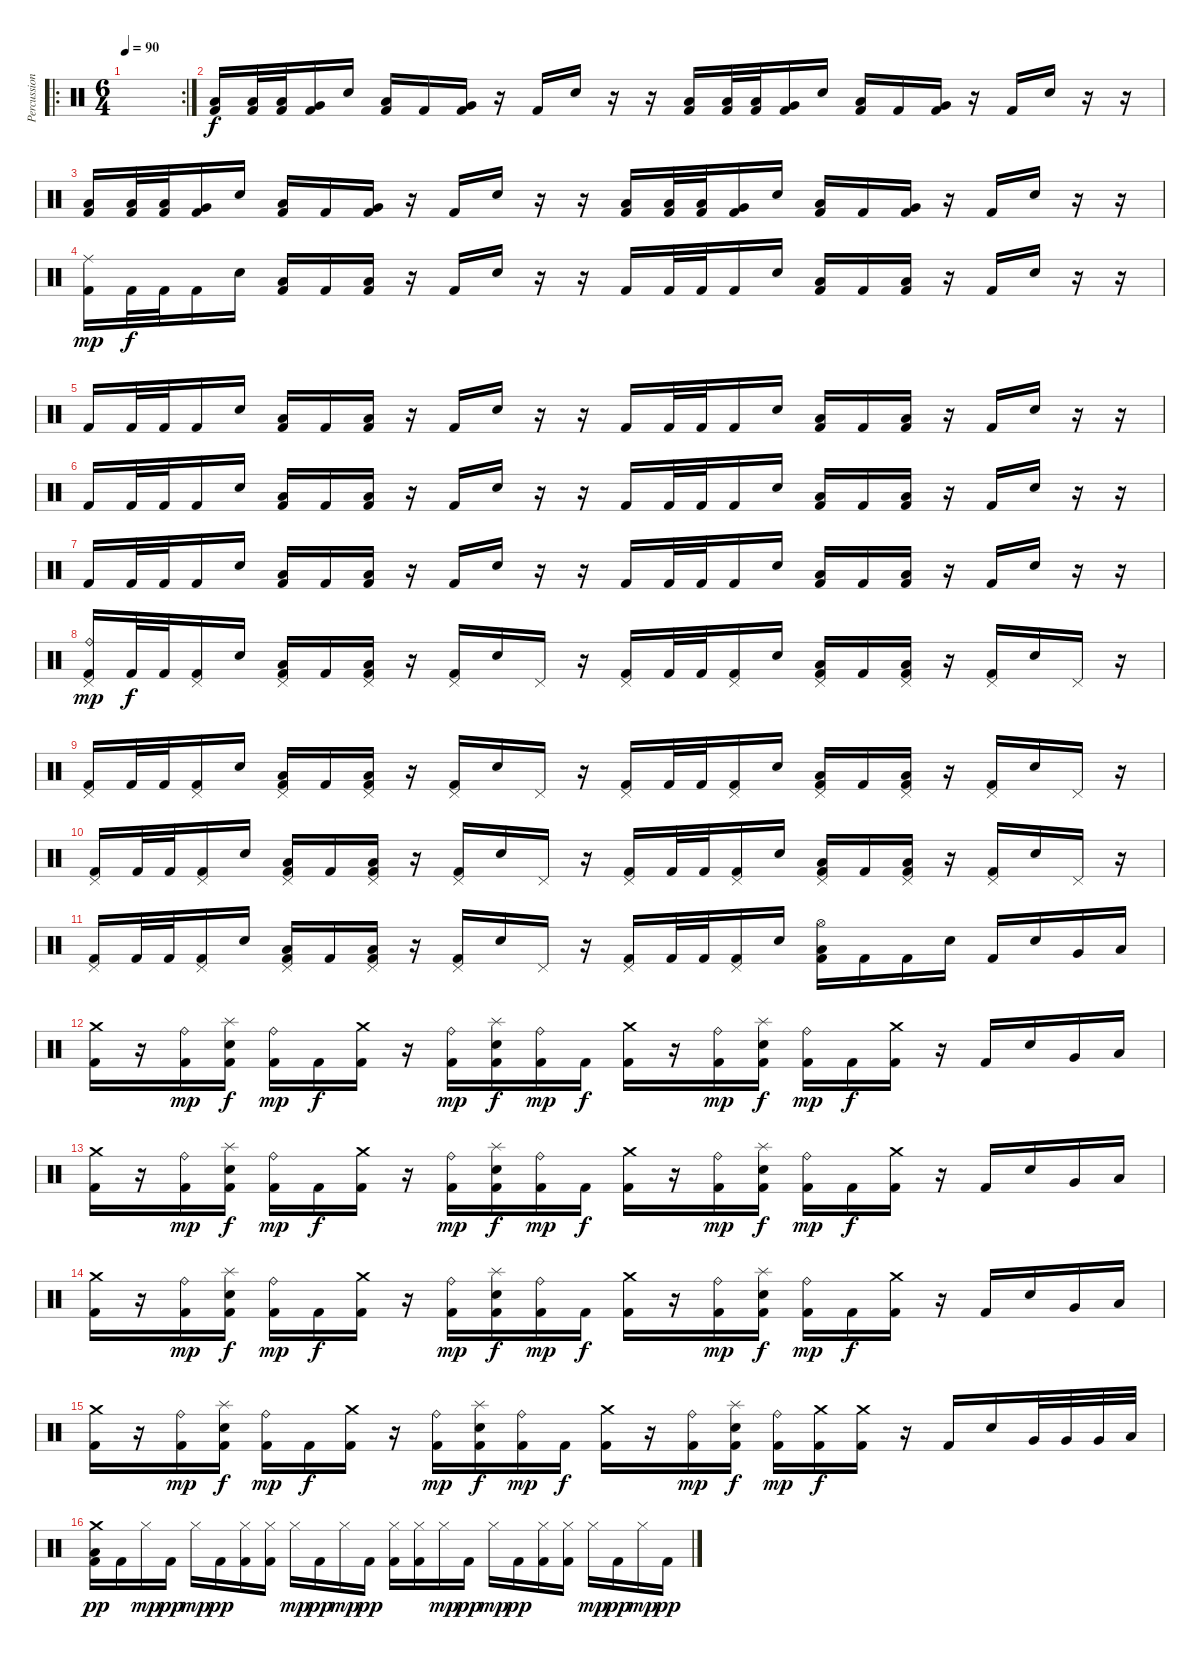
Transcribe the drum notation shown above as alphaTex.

\track ("Percussion" "Percussion") {instrument percussion}
\staff {score}
\articulation defaults
\ro
\rc 2
\ts (6 4)
\tempo 90
\clef neutral
\ks c
|
("Low Floor Tom (hit)" "Kick (hit) 2").16 ("Low Floor Tom (hit)" "Kick (hit) 2").32 ("Low Floor Tom (hit)" "Kick (hit) 2").32 ("Very Low Tom (hit)" "Kick (hit) 2").16 "Electric Snare (hit)".16 ("Low Tom (hit)" "Kick (hit) 2").16 "Kick (hit) 2".16 ("Very Low Tom (hit)" "Kick (hit) 2").16 r.16 "Kick (hit) 2".16 "Electric Snare (hit)".16 r.16 r.16 ("Low Floor Tom (hit)" "Kick (hit) 2").16 ("Low Floor Tom (hit)" "Kick (hit) 2").32 ("Low Floor Tom (hit)" "Kick (hit) 2").32 ("Very Low Tom (hit)" "Kick (hit) 2").16 "Electric Snare (hit)".16 ("Low Tom (hit)" "Kick (hit) 2").16 "Kick (hit) 2".16 ("Very Low Tom (hit)" "Kick (hit) 2").16 r.16 "Kick (hit) 2".16 "Electric Snare (hit)".16 r.16 r.16 |
("Low Floor Tom (hit)" "Kick (hit) 2").16 ("Low Floor Tom (hit)" "Kick (hit) 2").32 ("Low Floor Tom (hit)" "Kick (hit) 2").32 ("Very Low Tom (hit)" "Kick (hit) 2").16 "Electric Snare (hit)".16 ("Low Tom (hit)" "Kick (hit) 2").16 "Kick (hit) 2".16 ("Very Low Tom (hit)" "Kick (hit) 2").16 r.16 "Kick (hit) 2".16 "Electric Snare (hit)".16 r.16 r.16 ("Low Floor Tom (hit)" "Kick (hit) 2").16 ("Low Floor Tom (hit)" "Kick (hit) 2").32 ("Low Floor Tom (hit)" "Kick (hit) 2").32 ("Very Low Tom (hit)" "Kick (hit) 2").16 "Electric Snare (hit)".16 ("Low Tom (hit)" "Kick (hit) 2").16 "Kick (hit) 2".16 ("Very Low Tom (hit)" "Kick (hit) 2").16 r.16 "Kick (hit) 2".16 "Electric Snare (hit)".16 r.16 r.16 |
("Ride (middle)" "Kick (hit) 2").16{dy mp} "Kick (hit) 2".32{dy f} "Kick (hit) 2".32 "Kick (hit) 2".16 "Electric Snare (hit)".16 ("Low Floor Tom (hit)" "Kick (hit) 2").16 "Kick (hit) 2".16 ("Low Tom (hit)" "Kick (hit) 2").16 r.16 "Kick (hit) 2".16 "Electric Snare (hit)".16 r.16 r.16 "Kick (hit) 2".16 "Kick (hit) 2".32 "Kick (hit) 2".32 "Kick (hit) 2".16 "Electric Snare (hit)".16 ("Low Floor Tom (hit)" "Kick (hit) 2").16 "Kick (hit) 2".16 ("Low Tom (hit)" "Kick (hit) 2").16 r.16 "Kick (hit) 2".16 "Electric Snare (hit)".16 r.16 r.16 |
"Kick (hit) 2".16 "Kick (hit) 2".32 "Kick (hit) 2".32 "Kick (hit) 2".16 "Electric Snare (hit)".16 ("Low Floor Tom (hit)" "Kick (hit) 2").16 "Kick (hit) 2".16 ("Low Tom (hit)" "Kick (hit) 2").16 r.16 "Kick (hit) 2".16 "Electric Snare (hit)".16 r.16 r.16 "Kick (hit) 2".16 "Kick (hit) 2".32 "Kick (hit) 2".32 "Kick (hit) 2".16 "Electric Snare (hit)".16 ("Low Floor Tom (hit)" "Kick (hit) 2").16 "Kick (hit) 2".16 ("Low Tom (hit)" "Kick (hit) 2").16 r.16 "Kick (hit) 2".16 "Electric Snare (hit)".16 r.16 r.16 |
"Kick (hit) 2".16 "Kick (hit) 2".32 "Kick (hit) 2".32 "Kick (hit) 2".16 "Electric Snare (hit)".16 ("Low Floor Tom (hit)" "Kick (hit) 2").16 "Kick (hit) 2".16 ("Low Tom (hit)" "Kick (hit) 2").16 r.16 "Kick (hit) 2".16 "Electric Snare (hit)".16 r.16 r.16 "Kick (hit) 2".16 "Kick (hit) 2".32 "Kick (hit) 2".32 "Kick (hit) 2".16 "Electric Snare (hit)".16 ("Low Floor Tom (hit)" "Kick (hit) 2").16 "Kick (hit) 2".16 ("Low Tom (hit)" "Kick (hit) 2").16 r.16 "Kick (hit) 2".16 "Electric Snare (hit)".16 r.16 r.16 |
"Kick (hit) 2".16 "Kick (hit) 2".32 "Kick (hit) 2".32 "Kick (hit) 2".16 "Electric Snare (hit)".16 ("Low Floor Tom (hit)" "Kick (hit) 2").16 "Kick (hit) 2".16 ("Low Tom (hit)" "Kick (hit) 2").16 r.16 "Kick (hit) 2".16 "Electric Snare (hit)".16 r.16 r.16 "Kick (hit) 2".16 "Kick (hit) 2".32 "Kick (hit) 2".32 "Kick (hit) 2".16 "Electric Snare (hit)".16 ("Low Floor Tom (hit)" "Kick (hit) 2").16 "Kick (hit) 2".16 ("Low Tom (hit)" "Kick (hit) 2").16 r.16 "Kick (hit) 2".16 "Electric Snare (hit)".16 r.16 r.16 |
("Pedal Hi-Hat (hit)" "Ride (bell)" "Kick (hit) 2").16{dy mp} "Kick (hit) 2".32{dy f} "Kick (hit) 2".32 ("Pedal Hi-Hat (hit)" "Kick (hit) 2").16 "Electric Snare (hit)".16 ("Pedal Hi-Hat (hit)" "Low Floor Tom (hit)" "Kick (hit) 2").16 "Kick (hit) 2".16 ("Pedal Hi-Hat (hit)" "Low Tom (hit)" "Kick (hit) 2").16 r.16 ("Pedal Hi-Hat (hit)" "Kick (hit) 2").16 "Electric Snare (hit)".16 "Pedal Hi-Hat (hit)".16 r.16 ("Pedal Hi-Hat (hit)" "Kick (hit) 2").16 "Kick (hit) 2".32 "Kick (hit) 2".32 ("Pedal Hi-Hat (hit)" "Kick (hit) 2").16 "Electric Snare (hit)".16 ("Pedal Hi-Hat (hit)" "Low Floor Tom (hit)" "Kick (hit) 2").16 "Kick (hit) 2".16 ("Pedal Hi-Hat (hit)" "Low Tom (hit)" "Kick (hit) 2").16 r.16 ("Pedal Hi-Hat (hit)" "Kick (hit) 2").16 "Electric Snare (hit)".16 "Pedal Hi-Hat (hit)".16 r.16 |
("Pedal Hi-Hat (hit)" "Kick (hit) 2").16 "Kick (hit) 2".32 "Kick (hit) 2".32 ("Pedal Hi-Hat (hit)" "Kick (hit) 2").16 "Electric Snare (hit)".16 ("Pedal Hi-Hat (hit)" "Low Floor Tom (hit)" "Kick (hit) 2").16 "Kick (hit) 2".16 ("Pedal Hi-Hat (hit)" "Low Tom (hit)" "Kick (hit) 2").16 r.16 ("Pedal Hi-Hat (hit)" "Kick (hit) 2").16 "Electric Snare (hit)".16 "Pedal Hi-Hat (hit)".16 r.16 ("Pedal Hi-Hat (hit)" "Kick (hit) 2").16 "Kick (hit) 2".32 "Kick (hit) 2".32 ("Pedal Hi-Hat (hit)" "Kick (hit) 2").16 "Electric Snare (hit)".16 ("Pedal Hi-Hat (hit)" "Low Floor Tom (hit)" "Kick (hit) 2").16 "Kick (hit) 2".16 ("Pedal Hi-Hat (hit)" "Low Tom (hit)" "Kick (hit) 2").16 r.16 ("Pedal Hi-Hat (hit)" "Kick (hit) 2").16 "Electric Snare (hit)".16 "Pedal Hi-Hat (hit)".16 r.16 |
("Pedal Hi-Hat (hit)" "Kick (hit) 2").16 "Kick (hit) 2".32 "Kick (hit) 2".32 ("Pedal Hi-Hat (hit)" "Kick (hit) 2").16 "Electric Snare (hit)".16 ("Pedal Hi-Hat (hit)" "Low Floor Tom (hit)" "Kick (hit) 2").16 "Kick (hit) 2".16 ("Pedal Hi-Hat (hit)" "Low Tom (hit)" "Kick (hit) 2").16 r.16 ("Pedal Hi-Hat (hit)" "Kick (hit) 2").16 "Electric Snare (hit)".16 "Pedal Hi-Hat (hit)".16 r.16 ("Pedal Hi-Hat (hit)" "Kick (hit) 2").16 "Kick (hit) 2".32 "Kick (hit) 2".32 ("Pedal Hi-Hat (hit)" "Kick (hit) 2").16 "Electric Snare (hit)".16 ("Pedal Hi-Hat (hit)" "Low Floor Tom (hit)" "Kick (hit) 2").16 "Kick (hit) 2".16 ("Pedal Hi-Hat (hit)" "Low Tom (hit)" "Kick (hit) 2").16 r.16 ("Pedal Hi-Hat (hit)" "Kick (hit) 2").16 "Electric Snare (hit)".16 "Pedal Hi-Hat (hit)".16 r.16 |
("Pedal Hi-Hat (hit)" "Kick (hit) 2").16 "Kick (hit) 2".32 "Kick (hit) 2".32 ("Pedal Hi-Hat (hit)" "Kick (hit) 2").16 "Electric Snare (hit)".16 ("Pedal Hi-Hat (hit)" "Low Floor Tom (hit)" "Kick (hit) 2").16 "Kick (hit) 2".16 ("Pedal Hi-Hat (hit)" "Low Tom (hit)" "Kick (hit) 2").16 r.16 ("Pedal Hi-Hat (hit)" "Kick (hit) 2").16 "Electric Snare (hit)".16 "Pedal Hi-Hat (hit)".16 r.16 ("Pedal Hi-Hat (hit)" "Kick (hit) 2").16 "Kick (hit) 2".32 "Kick (hit) 2".32 ("Pedal Hi-Hat (hit)" "Kick (hit) 2").16 "Electric Snare (hit)".16 ("Hi-Hat (open)" "Low Floor Tom (hit)" "Kick (hit) 2").16 "Kick (hit) 2".16 "Kick (hit) 2".16 "Electric Snare (hit)".16 "Kick (hit) 2".16 "Electric Snare (hit)".16 "Very Low Tom (hit)".16 "Low Floor Tom (hit)".16 |
("Crash medium (hit)" "Kick (hit) 2").16 r.16 ("Ride (bell)" "Kick (hit) 2").16{dy mp} ("Splash (hit)" "Electric Snare (hit)" "Kick (hit) 2").16{dy f} ("Ride (bell)" "Kick (hit) 2").16{dy mp} "Kick (hit) 2".16{dy f} ("Crash medium (hit)" "Kick (hit) 2").16 r.16 ("Ride (bell)" "Kick (hit) 2").16{dy mp} ("Splash (hit)" "Electric Snare (hit)" "Kick (hit) 2").16{dy f} ("Ride (bell)" "Kick (hit) 2").16{dy mp} "Kick (hit) 2".16{dy f} ("Crash medium (hit)" "Kick (hit) 2").16 r.16 ("Ride (bell)" "Kick (hit) 2").16{dy mp} ("Splash (hit)" "Electric Snare (hit)" "Kick (hit) 2").16{dy f} ("Ride (bell)" "Kick (hit) 2").16{dy mp} "Kick (hit) 2".16{dy f} ("Crash medium (hit)" "Kick (hit) 2").16 r.16 "Kick (hit) 2".16 "Electric Snare (hit)".16 "Very Low Tom (hit)".16 "Low Floor Tom (hit)".16 |
("Crash medium (hit)" "Kick (hit) 2").16 r.16 ("Ride (bell)" "Kick (hit) 2").16{dy mp} ("Splash (hit)" "Electric Snare (hit)" "Kick (hit) 2").16{dy f} ("Ride (bell)" "Kick (hit) 2").16{dy mp} "Kick (hit) 2".16{dy f} ("Crash medium (hit)" "Kick (hit) 2").16 r.16 ("Ride (bell)" "Kick (hit) 2").16{dy mp} ("Splash (hit)" "Electric Snare (hit)" "Kick (hit) 2").16{dy f} ("Ride (bell)" "Kick (hit) 2").16{dy mp} "Kick (hit) 2".16{dy f} ("Crash medium (hit)" "Kick (hit) 2").16 r.16 ("Ride (bell)" "Kick (hit) 2").16{dy mp} ("Splash (hit)" "Electric Snare (hit)" "Kick (hit) 2").16{dy f} ("Ride (bell)" "Kick (hit) 2").16{dy mp} "Kick (hit) 2".16{dy f} ("Crash medium (hit)" "Kick (hit) 2").16 r.16 "Kick (hit) 2".16 "Electric Snare (hit)".16 "Very Low Tom (hit)".16 "Low Floor Tom (hit)".16 |
("Crash medium (hit)" "Kick (hit) 2").16 r.16 ("Ride (bell)" "Kick (hit) 2").16{dy mp} ("Splash (hit)" "Electric Snare (hit)" "Kick (hit) 2").16{dy f} ("Ride (bell)" "Kick (hit) 2").16{dy mp} "Kick (hit) 2".16{dy f} ("Crash medium (hit)" "Kick (hit) 2").16 r.16 ("Ride (bell)" "Kick (hit) 2").16{dy mp} ("Splash (hit)" "Electric Snare (hit)" "Kick (hit) 2").16{dy f} ("Ride (bell)" "Kick (hit) 2").16{dy mp} "Kick (hit) 2".16{dy f} ("Crash medium (hit)" "Kick (hit) 2").16 r.16 ("Ride (bell)" "Kick (hit) 2").16{dy mp} ("Splash (hit)" "Electric Snare (hit)" "Kick (hit) 2").16{dy f} ("Ride (bell)" "Kick (hit) 2").16{dy mp} "Kick (hit) 2".16{dy f} ("Crash medium (hit)" "Kick (hit) 2").16 r.16 "Kick (hit) 2".16 "Electric Snare (hit)".16 "Very Low Tom (hit)".16 "Low Floor Tom (hit)".16 |
("Crash medium (hit)" "Kick (hit) 2").16 r.16 ("Ride (bell)" "Kick (hit) 2").16{dy mp} ("Splash (hit)" "Electric Snare (hit)" "Kick (hit) 2").16{dy f} ("Ride (bell)" "Kick (hit) 2").16{dy mp} "Kick (hit) 2".16{dy f} ("Crash medium (hit)" "Kick (hit) 2").16 r.16 ("Ride (bell)" "Kick (hit) 2").16{dy mp} ("Splash (hit)" "Electric Snare (hit)" "Kick (hit) 2").16{dy f} ("Ride (bell)" "Kick (hit) 2").16{dy mp} "Kick (hit) 2".16{dy f} ("Crash medium (hit)" "Kick (hit) 2").16 r.16 ("Ride (bell)" "Kick (hit) 2").16{dy mp} ("Splash (hit)" "Electric Snare (hit)" "Kick (hit) 2").16{dy f} ("Ride (bell)" "Kick (hit) 2").16{dy mp} ("Crash medium (hit)" "Kick (hit) 2").16{dy f} ("Crash medium (hit)" "Kick (hit) 2").16 r.16 "Kick (hit) 2".16 "Electric Snare (hit)".16 "Very Low Tom (hit)".32 "Very Low Tom (hit)".32 "Very Low Tom (hit)".32 "Low Floor Tom (hit)".32 |
("Crash medium (hit)" "Low Floor Tom (hit)" "Kick (hit) 2").16{dy pp} "Kick (hit) 2".16 "Hi-Hat (closed)".16{dy mp} "Kick (hit) 2".16{dy pp} "Hi-Hat (closed)".16{dy mp} "Kick (hit) 2".16{dy pp} ("Hi-Hat (closed)" "Kick (hit) 2").16 ("Hi-Hat (closed)" "Kick (hit) 2").16 "Hi-Hat (closed)".16{dy mp} "Kick (hit) 2".16{dy pp} "Hi-Hat (closed)".16{dy mp} "Kick (hit) 2".16{dy pp} ("Hi-Hat (closed)" "Kick (hit) 2").16 ("Hi-Hat (closed)" "Kick (hit) 2").16 "Hi-Hat (closed)".16{dy mp} "Kick (hit) 2".16{dy pp} "Hi-Hat (closed)".16{dy mp} "Kick (hit) 2".16{dy pp} ("Hi-Hat (closed)" "Kick (hit) 2").16 ("Hi-Hat (closed)" "Kick (hit) 2").16 "Hi-Hat (closed)".16{dy mp} "Kick (hit) 2".16{dy pp} "Hi-Hat (closed)".16{dy mp} "Kick (hit) 2".16{dy pp}
